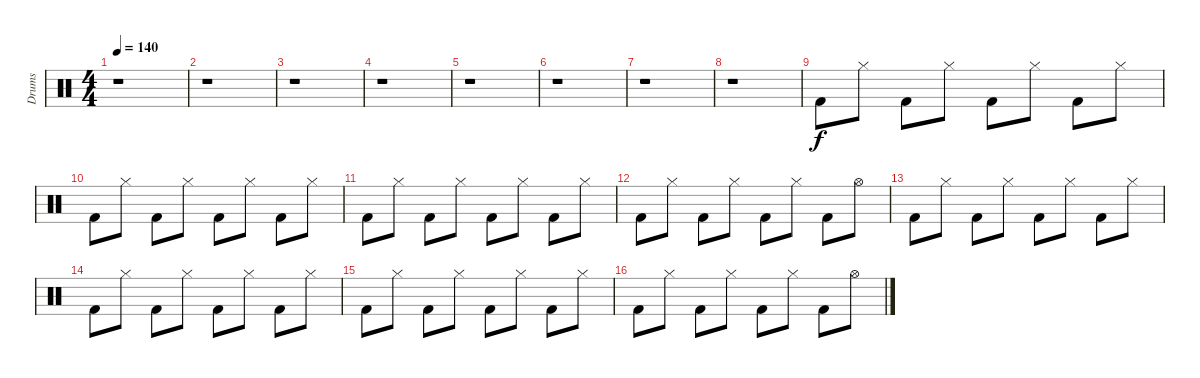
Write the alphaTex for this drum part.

\track ("Drums" "Drums") {instrument percussion}
\staff {score}
\articulation defaults
\ts (4 4)
\tempo 140
\clef neutral
\ks c
r.1{dy f} |
r.1 |
r.1 |
r.1 |
r.1 |
r.1 |
r.1 |
r.1 |
"Kick (hit) 2".8 "Hi-Hat (closed)".8 "Kick (hit) 2".8 "Hi-Hat (closed)".8 "Kick (hit) 2".8 "Hi-Hat (closed)".8 "Kick (hit) 2".8 "Hi-Hat (closed)".8 |
"Kick (hit) 2".8 "Hi-Hat (closed)".8 "Kick (hit) 2".8 "Hi-Hat (closed)".8 "Kick (hit) 2".8 "Hi-Hat (closed)".8 "Kick (hit) 2".8 "Hi-Hat (closed)".8 |
"Kick (hit) 2".8 "Hi-Hat (closed)".8 "Kick (hit) 2".8 "Hi-Hat (closed)".8 "Kick (hit) 2".8 "Hi-Hat (closed)".8 "Kick (hit) 2".8 "Hi-Hat (closed)".8 |
"Kick (hit) 2".8 "Hi-Hat (closed)".8 "Kick (hit) 2".8 "Hi-Hat (closed)".8 "Kick (hit) 2".8 "Hi-Hat (closed)".8 "Kick (hit) 2".8 "Hi-Hat (open)".8 |
"Kick (hit) 2".8 "Hi-Hat (closed)".8 "Kick (hit) 2".8 "Hi-Hat (closed)".8 "Kick (hit) 2".8 "Hi-Hat (closed)".8 "Kick (hit) 2".8 "Hi-Hat (closed)".8 |
"Kick (hit) 2".8 "Hi-Hat (closed)".8 "Kick (hit) 2".8 "Hi-Hat (closed)".8 "Kick (hit) 2".8 "Hi-Hat (closed)".8 "Kick (hit) 2".8 "Hi-Hat (closed)".8 |
"Kick (hit) 2".8 "Hi-Hat (closed)".8 "Kick (hit) 2".8 "Hi-Hat (closed)".8 "Kick (hit) 2".8 "Hi-Hat (closed)".8 "Kick (hit) 2".8 "Hi-Hat (closed)".8 |
"Kick (hit) 2".8 "Hi-Hat (closed)".8 "Kick (hit) 2".8 "Hi-Hat (closed)".8 "Kick (hit) 2".8 "Hi-Hat (closed)".8 "Kick (hit) 2".8 "Hi-Hat (open)".8
